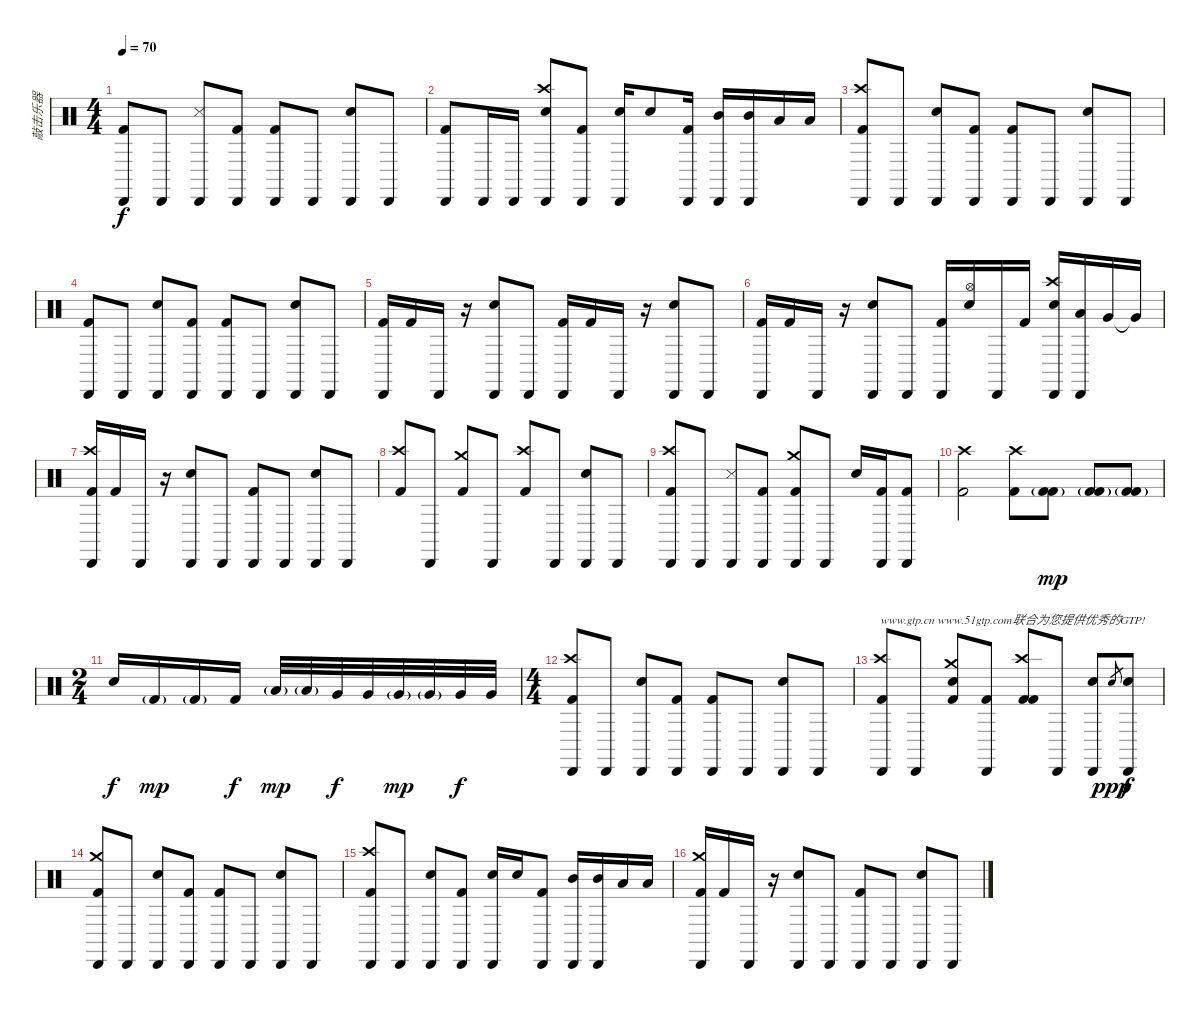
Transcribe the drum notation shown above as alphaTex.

\track ("敲击乐器" "敲击乐器") {instrument percussion}
\staff {score}
\articulation defaults
\ts (4 4)
\tempo 70
\clef neutral
\ks c
("Cabasa (hit)" "Kick (hit) 2").8{dy f} "Cabasa (hit)".8 ("Cabasa (hit)" "Snare (side stick) 3").8 ("Cabasa (hit)" "Kick (hit) 2").8 ("Cabasa (hit)" "Kick (hit) 2").8 "Cabasa (hit)".8 ("Cabasa (hit)" "Electric Snare (hit)").8 "Cabasa (hit)".8 |
("Cabasa (hit)" "Kick (hit) 2").8 "Cabasa (hit)".16 "Cabasa (hit)".16 ("Crash high (hit)" "Cabasa (hit)" "Electric Snare (hit)").8 ("Cabasa (hit)" "Kick (hit) 2").8 ("Cabasa (hit)" "Electric Snare (hit)").16 "Electric Snare (hit)".8 ("Cabasa (hit)" "Kick (hit) 2").16 ("Cabasa (hit)" "Mid Tom (hit)").16 ("Cabasa (hit)" "Mid Tom (hit)").16 "Low Tom (hit)".16 "Low Tom (hit)".16 |
("Crash high (hit)" "Cabasa (hit)" "Kick (hit) 2").8 "Cabasa (hit)".8 ("Cabasa (hit)" "Electric Snare (hit)").8 ("Cabasa (hit)" "Kick (hit) 2").8 ("Cabasa (hit)" "Kick (hit) 2").8 "Cabasa (hit)".8 ("Cabasa (hit)" "Electric Snare (hit)").8 "Cabasa (hit)".8 |
("Cabasa (hit)" "Kick (hit) 2").8 "Cabasa (hit)".8 ("Cabasa (hit)" "Electric Snare (hit)").8 ("Cabasa (hit)" "Kick (hit) 2").8 ("Cabasa (hit)" "Kick (hit) 2").8 "Cabasa (hit)".8 ("Cabasa (hit)" "Electric Snare (hit)").8 "Cabasa (hit)".8 |
("Cabasa (hit)" "Kick (hit) 2").16 "Kick (hit) 2".16 "Cabasa (hit)".16 r.16 ("Cabasa (hit)" "Electric Snare (hit)").8 "Cabasa (hit)".8 ("Cabasa (hit)" "Kick (hit) 2").16 "Kick (hit) 2".16 "Cabasa (hit)".16 r.16 ("Cabasa (hit)" "Electric Snare (hit)").8 "Cabasa (hit)".8 |
("Cabasa (hit)" "Kick (hit) 2").16 "Kick (hit) 2".16 "Cabasa (hit)".16 r.16 ("Cabasa (hit)" "Electric Snare (hit)").8 "Cabasa (hit)".8 ("Cabasa (hit)" "Kick (hit) 2").16 ("Hi-Hat (open)" "Electric Snare (hit)").16 "Cabasa (hit)".16 "Kick (hit) 2".16 ("Crash high (hit)" "Cabasa (hit)" "Electric Snare (hit)").16 ("Cabasa (hit)" "Low Tom (hit)").16 "Very Low Tom (hit)".16 "Very Low Tom (hit)"{t}.16 |
("Crash high (hit)" "Cabasa (hit)" "Kick (hit) 2").16 "Kick (hit) 2".16 "Cabasa (hit)".16 r.16 ("Cabasa (hit)" "Electric Snare (hit)").8 "Cabasa (hit)".8 ("Cabasa (hit)" "Kick (hit) 2").8 "Cabasa (hit)".8 ("Cabasa (hit)" "Electric Snare (hit)").8 "Cabasa (hit)".8 |
("Crash high (hit)" "Kick (hit) 2").8 "Cabasa (hit)".8 ("Crash medium (hit)" "Kick (hit) 2").8 "Cabasa (hit)".8 ("Crash high (hit)" "Kick (hit) 2").8 "Cabasa (hit)".8 ("Cabasa (hit)" "Electric Snare (hit)").8 "Cabasa (hit)".8 |
("Crash high (hit)" "Cabasa (hit)" "Kick (hit) 2").8 "Cabasa (hit)".8 ("Cabasa (hit)" "Snare (side stick) 3").8 ("Cabasa (hit)" "Kick (hit) 2").8 ("Crash medium (hit)" "Cabasa (hit)" "Kick (hit) 2").8 "Cabasa (hit)".8 "Electric Snare (hit)".16 ("Cabasa (hit)" "Kick (hit) 2").16 ("Cabasa (hit)" "Kick (hit) 2").8 |
("Crash high (hit)" "Kick (hit) 2").2 ("Crash high (hit)" "Kick (hit) 2").8 ("Kick (hit) 2"{g} "Kick (hit) 2"{g}).8{dy mp} ("Kick (hit) 2"{g} "Kick (hit) 2"{g}).8 ("Kick (hit) 2"{g} "Kick (hit) 2"{g}).8 |
\ts (2 4)
"Electric Snare (hit)".16{dy f} "Kick (hit) 2"{g}.16{dy mp} "Kick (hit) 2"{g}.16 "Kick (hit) 2".16{dy f} "Low Tom (hit)"{g}.32{dy mp} "Low Tom (hit)"{g}.32 "Very Low Tom (hit)".32{dy f} "Very Low Tom (hit)".32 "Very Low Tom (hit)"{g}.32{dy mp} "Very Low Tom (hit)"{g}.32 "Very Low Tom (hit)".32{dy f} "Very Low Tom (hit)".32 |
\ts (4 4)
("Crash high (hit)" "Cabasa (hit)" "Kick (hit) 2").8 "Cabasa (hit)".8 ("Cabasa (hit)" "Electric Snare (hit)").8 ("Cabasa (hit)" "Kick (hit) 2").8 ("Cabasa (hit)" "Kick (hit) 2").8 "Cabasa (hit)".8 ("Cabasa (hit)" "Electric Snare (hit)").8 "Cabasa (hit)".8 |
("Crash high (hit)" "Cabasa (hit)" "Kick (hit) 2").8{txt "www.gtp.cn www.51gtp.com联合为您提供优秀的GTP!"} "Cabasa (hit)".8 ("Crash medium (hit)" "Kick (hit) 2" "Electric Snare (hit)").8 ("Cabasa (hit)" "Kick (hit) 2").8 ("Crash high (hit)" "Kick (hit) 2" "Kick (hit) 2").8 "Cabasa (hit)".8 ("Cabasa (hit)" "Electric Snare (hit)").8 "Electric Snare (hit)".8{gr dy ppp} ("Cabasa (hit)" "Electric Snare (hit)").8{dy f} |
("Crash medium (hit)" "Cabasa (hit)" "Kick (hit) 2").8 "Cabasa (hit)".8 ("Cabasa (hit)" "Electric Snare (hit)").8 ("Cabasa (hit)" "Kick (hit) 2").8 ("Cabasa (hit)" "Kick (hit) 2").8 "Cabasa (hit)".8 ("Cabasa (hit)" "Electric Snare (hit)").8 "Cabasa (hit)".8 |
("Crash high (hit)" "Cabasa (hit)" "Kick (hit) 2").8 "Cabasa (hit)".8 ("Cabasa (hit)" "Electric Snare (hit)").8 ("Cabasa (hit)" "Kick (hit) 2").8 ("Cabasa (hit)" "Electric Snare (hit)").16 "Electric Snare (hit)".16 ("Cabasa (hit)" "Kick (hit) 2").8 ("Cabasa (hit)" "Mid Tom (hit)").16 ("Cabasa (hit)" "Mid Tom (hit)").16 "Low Tom (hit)".16 "Low Tom (hit)".16 |
("Crash medium (hit)" "Cabasa (hit)" "Kick (hit) 2").16 "Kick (hit) 2".16 "Cabasa (hit)".16 r.16 ("Cabasa (hit)" "Electric Snare (hit)").8 "Cabasa (hit)".8 ("Cabasa (hit)" "Kick (hit) 2").8 "Cabasa (hit)".8 ("Cabasa (hit)" "Electric Snare (hit)").8 "Cabasa (hit)".8
